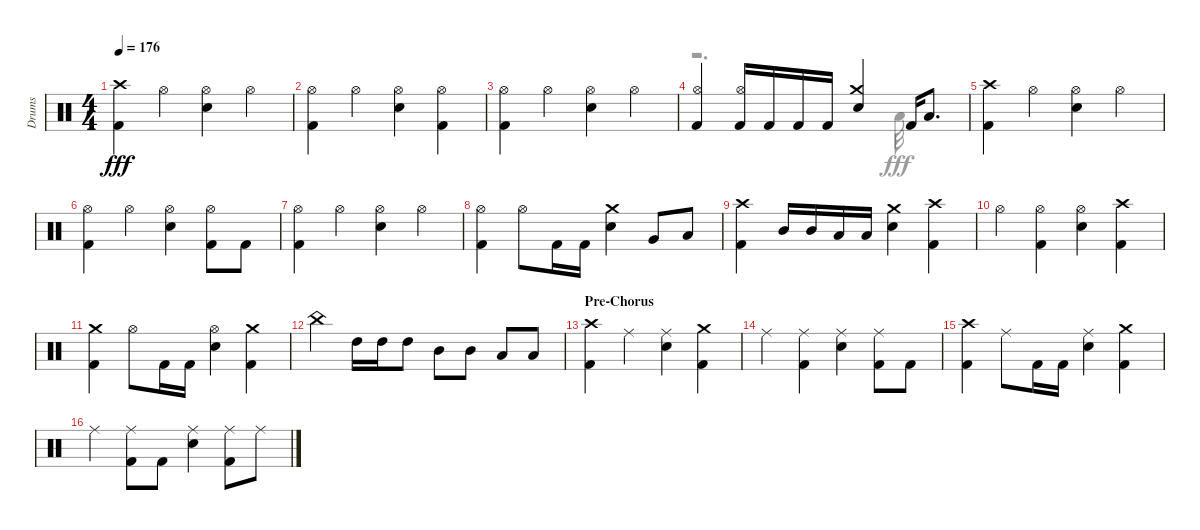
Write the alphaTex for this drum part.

\track ("Drums" "Drums") {instrument percussion}
\staff {score}
\articulation defaults
\voice
\ts (4 4)
\tempo 176
\clef neutral
\ks aminor
("Crash high (hit)" "Kick (hit) 2").4{dy fff} "Hi-Hat (open)".4 ("Hi-Hat (open)" "Snare (hit) 2").4 "Hi-Hat (open)".4 |
("Kick (hit) 2" "Hi-Hat (open)").4 "Hi-Hat (open)".4 ("Hi-Hat (open)" "Snare (hit) 2").4 ("Hi-Hat (open)" "Kick (hit) 2").4 |
("Hi-Hat (open)" "Kick (hit) 2").4 "Hi-Hat (open)".4 ("Hi-Hat (open)" "Snare (hit) 2").4 "Hi-Hat (open)".4 |
("Kick (hit) 2" "Hi-Hat (open)").4 ("Kick (hit) 2" "Hi-Hat (open)").16 "Kick (hit) 2".16 "Kick (hit) 2".16 "Kick (hit) 2".16 ("Crash medium (hit)" "Snare (hit) 2").4 "Kick (hit) 2".16 "Low Floor Tom (hit)".8{d} |
("Crash high (hit)" "Kick (hit) 2").4 "Hi-Hat (open)".4 ("Snare (hit) 2" "Hi-Hat (open)").4 "Hi-Hat (open)".4 |
("Hi-Hat (open)" "Kick (hit) 2").4 "Hi-Hat (open)".4 ("Hi-Hat (open)" "Snare (hit) 2").4 ("Kick (hit) 2" "Hi-Hat (open)").8 "Kick (hit) 2".8 |
("Kick (hit) 2" "Hi-Hat (open)").4 "Hi-Hat (open)".4 ("Snare (hit) 2" "Hi-Hat (open)").4 "Hi-Hat (open)".4 |
("Hi-Hat (open)" "Kick (hit) 2").4 "Hi-Hat (open)".8 "Kick (hit) 2".16 "Kick (hit) 2".16 ("Crash medium (hit)" "Snare (hit) 2").4 "Very Low Tom (hit)".8 "Low Floor Tom (hit)".8 |
("Kick (hit) 2" "Crash high (hit)").4 "Mid Tom (hit)".16 "Mid Tom (hit)".16 "Low Tom (hit)".16 "Low Tom (hit)".16 ("Snare (hit) 2" "Crash medium (hit)").4 ("Kick (hit) 2" "Crash high (hit)").4 |
"Hi-Hat (open)".4 ("Hi-Hat (open)" "Kick (hit) 2").4 ("Hi-Hat (open)" "Snare (hit) 2").4 ("Kick (hit) 2" "Crash high (hit)").4 |
("Kick (hit) 2" "Crash medium (hit)").4 "Hi-Hat (open)".8 "Kick (hit) 2".16 "Kick (hit) 2".16 ("Hi-Hat (open)" "Snare (hit) 2").4 ("Kick (hit) 2" "Crash medium (hit)").4 |
"China (hit)".4 "High Tom (hit)".16 "High Tom (hit)".16 "High Tom (hit)".8 "Mid Tom (hit)".8 "Mid Tom (hit)".8 "Low Tom (hit)".8 "Low Tom (hit)".8 |
\section ("" "Pre-Chorus")
("Kick (hit) 2" "Crash high (hit)").4 "Ride (middle)".4 ("Ride (middle)" "Snare (hit) 2").4 ("Kick (hit) 2" "Crash medium (hit)").4 |
"Ride (middle)".4 ("Ride (middle)" "Kick (hit) 2").4 ("Snare (hit) 2" "Ride (middle)").4 ("Kick (hit) 2" "Ride (middle)").8 "Kick (hit) 2".8 |
("Crash high (hit)" "Kick (hit) 2").4 "Ride (middle)".8 "Kick (hit) 2".16 "Kick (hit) 2".16 ("Snare (hit) 2" "Ride (middle)").4 ("Kick (hit) 2" "Crash medium (hit)").4 |
"Ride (middle)".4 ("Kick (hit) 2" "Ride (middle)").8 "Kick (hit) 2".8 ("Snare (hit) 2" "Ride (middle)").4 ("Ride (middle)" "Kick (hit) 2").8 "Ride (middle)".8
\voice
\clef neutral
\ottava regular
\simile none
\ks aminor
|
|
|
r.2{d} "Low Floor Tom (hit)".32 |
|
|
|
|
|
|
|
|
|
|
|
